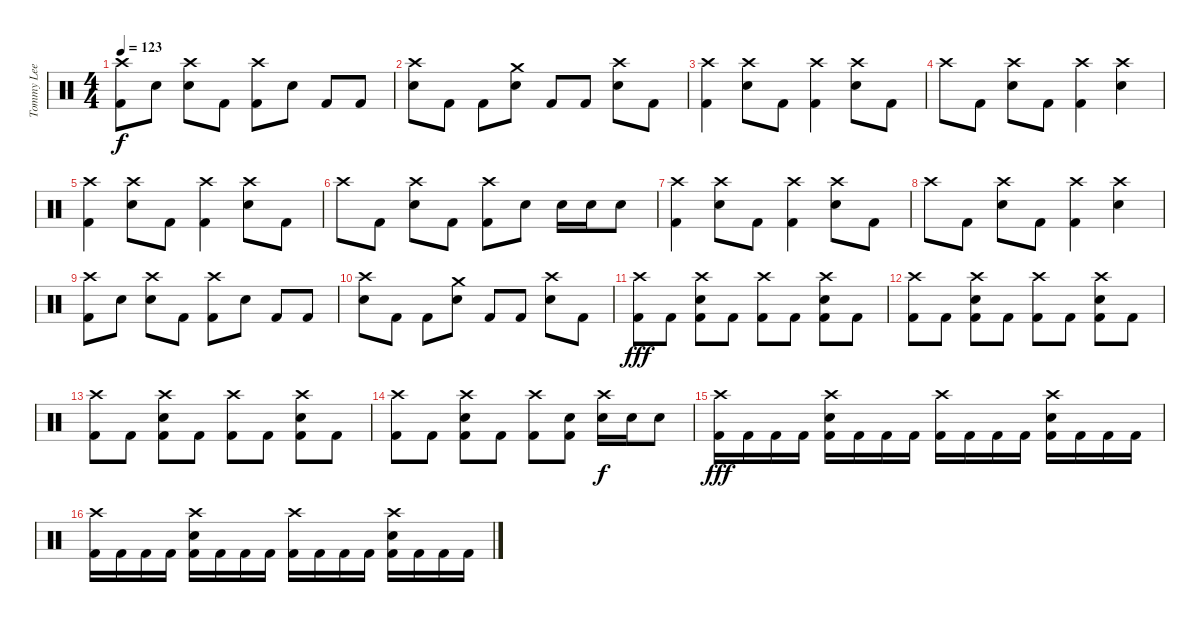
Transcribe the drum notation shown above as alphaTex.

\track ("Tommy Lee" "Tommy Lee") {instrument percussion}
\staff {score}
\articulation defaults
\ts (4 4)
\tempo 123
\clef neutral
\ks c
("Crash high (hit)" "Kick (hit) 2").8{dy f} "Snare (hit) 2".8 ("Crash high (hit)" "Snare (hit) 2").8 "Kick (hit) 2".8 ("Crash high (hit)" "Kick (hit) 2").8 "Snare (hit) 2".8 "Kick (hit) 2".8 "Kick (hit) 2".8 |
("Crash high (hit)" "Snare (hit) 2").8 "Kick (hit) 2".8 "Kick (hit) 2".8 ("Crash medium (hit)" "Snare (hit) 2").8 "Kick (hit) 2".8 "Kick (hit) 2".8 ("Crash high (hit)" "Snare (hit) 2").8 "Kick (hit) 2".8 |
("Crash high (hit)" "Kick (hit) 2").4 ("Crash high (hit)" "Snare (hit) 2").8 "Kick (hit) 2".8 ("Crash high (hit)" "Kick (hit) 2").4 ("Crash high (hit)" "Snare (hit) 2").8 "Kick (hit) 2".8 |
"Crash high (hit)".8 "Kick (hit) 2".8 ("Crash high (hit)" "Snare (hit) 2").8 "Kick (hit) 2".8 ("Crash high (hit)" "Kick (hit) 2").4 ("Crash high (hit)" "Snare (hit) 2").4 |
("Crash high (hit)" "Kick (hit) 2").4 ("Crash high (hit)" "Snare (hit) 2").8 "Kick (hit) 2".8 ("Crash high (hit)" "Kick (hit) 2").4 ("Crash high (hit)" "Snare (hit) 2").8 "Kick (hit) 2".8 |
"Crash high (hit)".8 "Kick (hit) 2".8 ("Crash high (hit)" "Snare (hit) 2").8 "Kick (hit) 2".8 ("Crash high (hit)" "Kick (hit) 2").8 "Snare (hit) 2".8 "Snare (hit) 2".16 "Snare (hit) 2".16 "Snare (hit) 2".8 |
("Crash high (hit)" "Kick (hit) 2").4 ("Crash high (hit)" "Snare (hit) 2").8 "Kick (hit) 2".8 ("Crash high (hit)" "Kick (hit) 2").4 ("Crash high (hit)" "Snare (hit) 2").8 "Kick (hit) 2".8 |
"Crash high (hit)".8 "Kick (hit) 2".8 ("Crash high (hit)" "Snare (hit) 2").8 "Kick (hit) 2".8 ("Crash high (hit)" "Kick (hit) 2").4 ("Crash high (hit)" "Snare (hit) 2").4 |
("Crash high (hit)" "Kick (hit) 2").8 "Snare (hit) 2".8 ("Crash high (hit)" "Snare (hit) 2").8 "Kick (hit) 2".8 ("Crash high (hit)" "Kick (hit) 2").8 "Snare (hit) 2".8 "Kick (hit) 2".8 "Kick (hit) 2".8 |
("Crash high (hit)" "Snare (hit) 2").8 "Kick (hit) 2".8 "Kick (hit) 2".8 ("Crash medium (hit)" "Snare (hit) 2").8 "Kick (hit) 2".8 "Kick (hit) 2".8 ("Crash high (hit)" "Snare (hit) 2").8 "Kick (hit) 2".8 |
("Crash high (hit)" "Kick (hit) 2").8{dy fff} "Kick (hit) 2".8 ("Crash high (hit)" "Snare (hit) 2" "Kick (hit) 2").8 "Kick (hit) 2".8 ("Crash high (hit)" "Kick (hit) 2").8 "Kick (hit) 2".8 ("Crash high (hit)" "Snare (hit) 2" "Kick (hit) 2").8 "Kick (hit) 2".8 |
("Crash high (hit)" "Kick (hit) 2").8 "Kick (hit) 2".8 ("Crash high (hit)" "Snare (hit) 2" "Kick (hit) 2").8 "Kick (hit) 2".8 ("Crash high (hit)" "Kick (hit) 2").8 "Kick (hit) 2".8 ("Crash high (hit)" "Snare (hit) 2" "Kick (hit) 2").8 "Kick (hit) 2".8 |
("Crash high (hit)" "Kick (hit) 2").8 "Kick (hit) 2".8 ("Crash high (hit)" "Snare (hit) 2" "Kick (hit) 2").8 "Kick (hit) 2".8 ("Crash high (hit)" "Kick (hit) 2").8 "Kick (hit) 2".8 ("Crash high (hit)" "Snare (hit) 2" "Kick (hit) 2").8 "Kick (hit) 2".8 |
("Crash high (hit)" "Kick (hit) 2").8 "Kick (hit) 2".8 ("Crash high (hit)" "Snare (hit) 2" "Kick (hit) 2").8 "Kick (hit) 2".8 ("Crash high (hit)" "Kick (hit) 2").8 ("Snare (hit) 2" "Kick (hit) 2").8 ("Crash high (hit)" "Snare (hit) 2").16{dy f} "Snare (hit) 2".16 "Snare (hit) 2".8 |
("Crash high (hit)" "Kick (hit) 2").16{dy fff} "Kick (hit) 2".16 "Kick (hit) 2".16 "Kick (hit) 2".16 ("Crash high (hit)" "Snare (hit) 2" "Kick (hit) 2").16 "Kick (hit) 2".16 "Kick (hit) 2".16 "Kick (hit) 2".16 ("Crash high (hit)" "Kick (hit) 2").16 "Kick (hit) 2".16 "Kick (hit) 2".16 "Kick (hit) 2".16 ("Crash high (hit)" "Snare (hit) 2" "Kick (hit) 2").16 "Kick (hit) 2".16 "Kick (hit) 2".16 "Kick (hit) 2".16 |
("Crash high (hit)" "Kick (hit) 2").16 "Kick (hit) 2".16 "Kick (hit) 2".16 "Kick (hit) 2".16 ("Crash high (hit)" "Snare (hit) 2" "Kick (hit) 2").16 "Kick (hit) 2".16 "Kick (hit) 2".16 "Kick (hit) 2".16 ("Crash high (hit)" "Kick (hit) 2").16 "Kick (hit) 2".16 "Kick (hit) 2".16 "Kick (hit) 2".16 ("Crash high (hit)" "Snare (hit) 2" "Kick (hit) 2").16 "Kick (hit) 2".16 "Kick (hit) 2".16 "Kick (hit) 2".16
